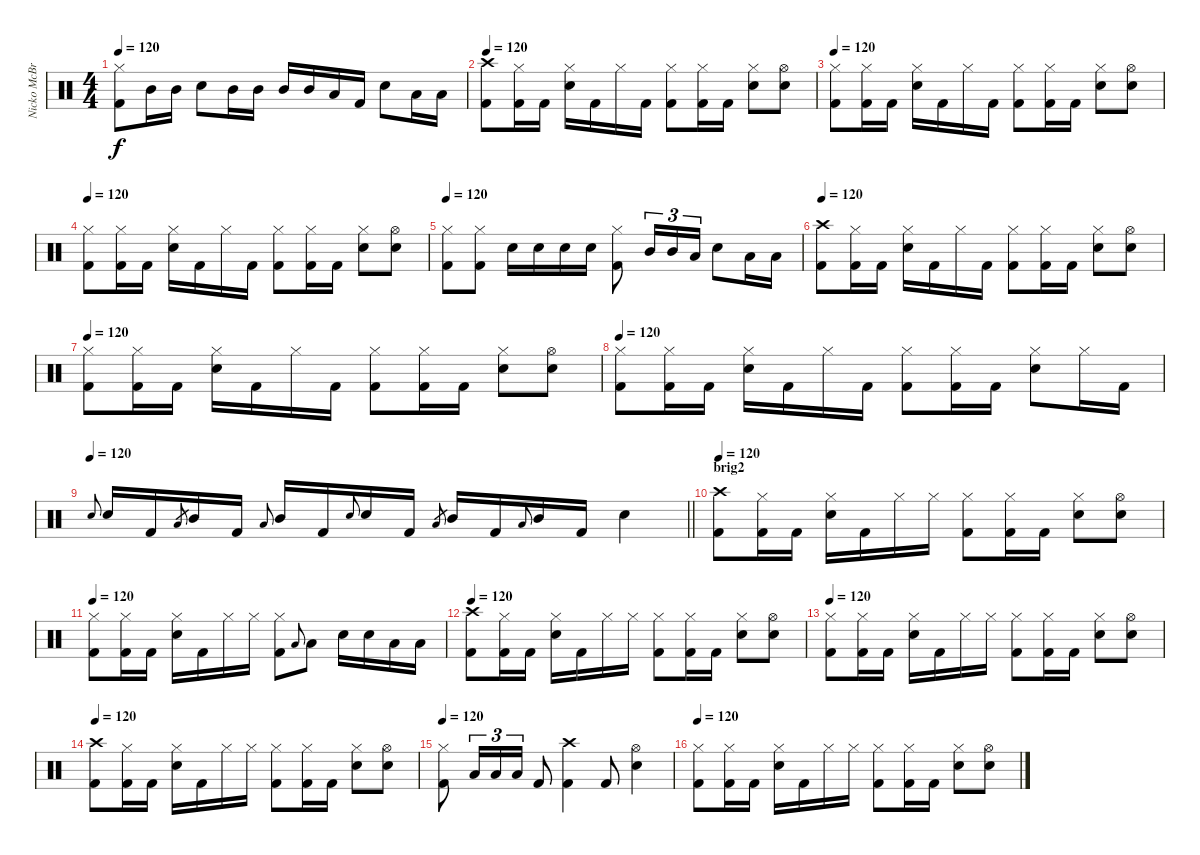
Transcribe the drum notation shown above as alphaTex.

\track ("Nicko McBrain" "Nicko McBr") {instrument percussion}
\staff {score}
\articulation defaults
\ts (4 4)
\tempo 120
\clef neutral
\ks c
("Hi-Hat (closed)" "Kick (hit) 2").8{dy f} "Mid Tom (hit)".16 "Mid Tom (hit)".16 "Snare (hit) 2".8 "Mid Tom (hit)".16 "Mid Tom (hit)".16 "Mid Tom (hit)".16 "Mid Tom (hit)".16 "Low Tom (hit)".16 "Kick (hit) 2".16 "Snare (hit) 2".8 "Low Floor Tom (hit)".16 "Low Floor Tom (hit)".16 |
\tempo 120
("Crash high (hit)" "Kick (hit) 2").8 ("Hi-Hat (closed)" "Kick (hit) 2").16 "Kick (hit) 2".16 ("Hi-Hat (closed)" "Snare (hit) 2").16 "Kick (hit) 2".16 "Hi-Hat (closed)".16 "Kick (hit) 2".16 ("Hi-Hat (closed)" "Kick (hit) 2").8 ("Hi-Hat (closed)" "Kick (hit) 2").16 "Kick (hit) 2".16 ("Hi-Hat (closed)" "Snare (hit) 2").8 ("Hi-Hat (open)" "Snare (hit) 2").8 |
\tempo 120
("Hi-Hat (closed)" "Kick (hit) 2").8 ("Hi-Hat (closed)" "Kick (hit) 2").16 "Kick (hit) 2".16 ("Hi-Hat (closed)" "Snare (hit) 2").16 "Kick (hit) 2".16 "Hi-Hat (closed)".16 "Kick (hit) 2".16 ("Hi-Hat (closed)" "Kick (hit) 2").8 ("Hi-Hat (closed)" "Kick (hit) 2").16 "Kick (hit) 2".16 ("Hi-Hat (closed)" "Snare (hit) 2").8 ("Hi-Hat (open)" "Snare (hit) 2").8 |
\tempo 120
("Hi-Hat (closed)" "Kick (hit) 2").8 ("Hi-Hat (closed)" "Kick (hit) 2").16 "Kick (hit) 2".16 ("Hi-Hat (closed)" "Snare (hit) 2").16 "Kick (hit) 2".16 "Hi-Hat (closed)".16 "Kick (hit) 2".16 ("Hi-Hat (closed)" "Kick (hit) 2").8 ("Hi-Hat (closed)" "Kick (hit) 2").16 "Kick (hit) 2".16 ("Hi-Hat (closed)" "Snare (hit) 2").8 ("Hi-Hat (open)" "Snare (hit) 2").8 |
\tempo 120
("Hi-Hat (closed)" "Kick (hit) 2").8 ("Hi-Hat (closed)" "Kick (hit) 2").8 "Snare (hit) 2".16 "Snare (hit) 2".16 "Snare (hit) 2".16 "Snare (hit) 2".16 ("Hi-Hat (closed)" "Kick (hit) 2").8 "Mid Tom (hit)".16{tu (3 2)} "Mid Tom (hit)".16{tu (3 2)} "Low Tom (hit)".16{tu (3 2)} "Snare (hit) 2".8 "Low Floor Tom (hit)".16 "Low Floor Tom (hit)".16 |
\tempo 120
("Crash high (hit)" "Kick (hit) 2").8 ("Hi-Hat (closed)" "Kick (hit) 2").16 "Kick (hit) 2".16 ("Hi-Hat (closed)" "Snare (hit) 2").16 "Kick (hit) 2".16 "Hi-Hat (closed)".16 "Kick (hit) 2".16 ("Hi-Hat (closed)" "Kick (hit) 2").8 ("Hi-Hat (closed)" "Kick (hit) 2").16 "Kick (hit) 2".16 ("Hi-Hat (closed)" "Snare (hit) 2").8 ("Hi-Hat (open)" "Snare (hit) 2").8 |
\tempo 120
("Hi-Hat (closed)" "Kick (hit) 2").8 ("Hi-Hat (closed)" "Kick (hit) 2").16 "Kick (hit) 2".16 ("Hi-Hat (closed)" "Snare (hit) 2").16 "Kick (hit) 2".16 "Hi-Hat (closed)".16 "Kick (hit) 2".16 ("Hi-Hat (closed)" "Kick (hit) 2").8 ("Hi-Hat (closed)" "Kick (hit) 2").16 "Kick (hit) 2".16 ("Hi-Hat (closed)" "Snare (hit) 2").8 ("Hi-Hat (open)" "Snare (hit) 2").8 |
\tempo 120
("Hi-Hat (closed)" "Kick (hit) 2").8 ("Hi-Hat (closed)" "Kick (hit) 2").16 "Kick (hit) 2".16 ("Hi-Hat (closed)" "Snare (hit) 2").16 "Kick (hit) 2".16 "Hi-Hat (closed)".16 "Kick (hit) 2".16 ("Hi-Hat (closed)" "Kick (hit) 2").8 ("Hi-Hat (closed)" "Kick (hit) 2").16 "Kick (hit) 2".16 ("Hi-Hat (closed)" "Snare (hit) 2").8 "Hi-Hat (closed)".16 "Kick (hit) 2".16 |
\tempo 120
\barLineRight lightlight "Snare (hit) 2".8{gr onbeat} "Snare (hit) 2".16 "Kick (hit) 2".16 "Low Tom (hit)".8{gr} "Mid Tom (hit)".16 "Kick (hit) 2".16 "Low Tom (hit)".8{gr onbeat} "Mid Tom (hit)".16 "Kick (hit) 2".16 "Snare (hit) 2".8{gr onbeat} "Snare (hit) 2".16 "Kick (hit) 2".16 "Low Tom (hit)".8{gr} "Mid Tom (hit)".16 "Kick (hit) 2".16 "Low Tom (hit)".8{gr onbeat} "Mid Tom (hit)".16 "Kick (hit) 2".16 "Snare (hit) 2".4
|
\section ("" "brig2")
\tempo 120
("Crash high (hit)" "Kick (hit) 2").8 ("Hi-Hat (closed)" "Kick (hit) 2").16 "Kick (hit) 2".16 ("Hi-Hat (closed)" "Snare (hit) 2").16 "Kick (hit) 2".16 "Hi-Hat (closed)".16 "Hi-Hat (closed)".16 ("Hi-Hat (closed)" "Kick (hit) 2").8 ("Hi-Hat (closed)" "Kick (hit) 2").16 "Kick (hit) 2".16 ("Hi-Hat (closed)" "Snare (hit) 2").8 ("Hi-Hat (open)" "Snare (hit) 2").8 |
\tempo 120
("Hi-Hat (closed)" "Kick (hit) 2").8 ("Hi-Hat (closed)" "Kick (hit) 2").16 "Kick (hit) 2".16 ("Hi-Hat (closed)" "Snare (hit) 2").16 "Kick (hit) 2".16 "Hi-Hat (closed)".16 "Hi-Hat (closed)".16 ("Hi-Hat (closed)" "Kick (hit) 2").8 "Low Tom (hit)".8{gr onbeat} "Low Tom (hit)".8 "Snare (hit) 2".16 "Snare (hit) 2".16 "Low Floor Tom (hit)".16 "Low Floor Tom (hit)".16 |
\tempo 120
("Crash high (hit)" "Kick (hit) 2").8 ("Hi-Hat (closed)" "Kick (hit) 2").16 "Kick (hit) 2".16 ("Hi-Hat (closed)" "Snare (hit) 2").16 "Kick (hit) 2".16 "Hi-Hat (closed)".16 "Hi-Hat (closed)".16 ("Hi-Hat (closed)" "Kick (hit) 2").8 ("Hi-Hat (closed)" "Kick (hit) 2").16 "Kick (hit) 2".16 ("Hi-Hat (closed)" "Snare (hit) 2").8 ("Hi-Hat (open)" "Snare (hit) 2").8 |
\tempo 120
("Hi-Hat (closed)" "Kick (hit) 2").8 ("Hi-Hat (closed)" "Kick (hit) 2").16 "Kick (hit) 2".16 ("Hi-Hat (closed)" "Snare (hit) 2").16 "Kick (hit) 2".16 "Hi-Hat (closed)".16 "Hi-Hat (closed)".16 ("Hi-Hat (closed)" "Kick (hit) 2").8 ("Hi-Hat (closed)" "Kick (hit) 2").16 "Kick (hit) 2".16 ("Hi-Hat (closed)" "Snare (hit) 2").8 ("Hi-Hat (open)" "Snare (hit) 2").8 |
\tempo 120
("Crash high (hit)" "Kick (hit) 2").8 ("Hi-Hat (closed)" "Kick (hit) 2").16 "Kick (hit) 2".16 ("Hi-Hat (closed)" "Snare (hit) 2").16 "Kick (hit) 2".16 "Hi-Hat (closed)".16 "Hi-Hat (closed)".16 ("Hi-Hat (closed)" "Kick (hit) 2").8 ("Hi-Hat (closed)" "Kick (hit) 2").16 "Kick (hit) 2".16 ("Hi-Hat (closed)" "Snare (hit) 2").8 ("Hi-Hat (open)" "Snare (hit) 2").8 |
\tempo 120
("Hi-Hat (closed)" "Kick (hit) 2").8 "Low Tom (hit)".16{tu (3 2)} "Low Tom (hit)".16{tu (3 2)} "Low Floor Tom (hit)".16{tu (3 2)} "Kick (hit) 2".8 ("Crash high (hit)" "Kick (hit) 2").4 "Kick (hit) 2".8 ("Hi-Hat (open)" "Snare (hit) 2").4 |
\tempo 120
("Hi-Hat (closed)" "Kick (hit) 2").8 ("Hi-Hat (closed)" "Kick (hit) 2").16 "Kick (hit) 2".16 ("Hi-Hat (closed)" "Snare (hit) 2").16 "Kick (hit) 2".16 "Hi-Hat (closed)".16 "Hi-Hat (closed)".16 ("Hi-Hat (closed)" "Kick (hit) 2").8 ("Hi-Hat (closed)" "Kick (hit) 2").16 "Kick (hit) 2".16 ("Hi-Hat (closed)" "Snare (hit) 2").8 ("Hi-Hat (open)" "Snare (hit) 2").8
